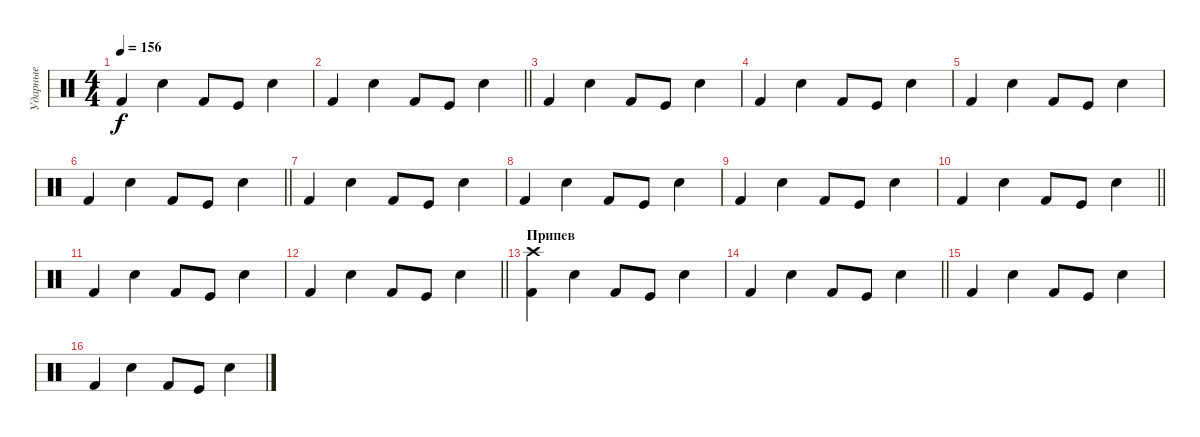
\track ("Ударные" "Ударные") {instrument percussion}
\staff {score}
\articulation defaults
\ts (4 4)
\tempo 156
\clef neutral
\ks c "Kick (hit) 2".4{dy f} "Snare (hit) 2".4 "Kick (hit) 2".8 "Kick (hit)".8 "Snare (hit) 2".4
|
\barLineRight lightlight "Kick (hit) 2".4 "Snare (hit) 2".4 "Kick (hit) 2".8 "Kick (hit)".8 "Snare (hit) 2".4
|
"Kick (hit) 2".4 "Snare (hit) 2".4 "Kick (hit) 2".8 "Kick (hit)".8 "Snare (hit) 2".4 |
"Kick (hit) 2".4 "Snare (hit) 2".4 "Kick (hit) 2".8 "Kick (hit)".8 "Snare (hit) 2".4 |
"Kick (hit) 2".4 "Snare (hit) 2".4 "Kick (hit) 2".8 "Kick (hit)".8 "Snare (hit) 2".4 |
\barLineRight lightlight "Kick (hit) 2".4 "Snare (hit) 2".4 "Kick (hit) 2".8 "Kick (hit)".8 "Snare (hit) 2".4
|
"Kick (hit) 2".4 "Snare (hit) 2".4 "Kick (hit) 2".8 "Kick (hit)".8 "Snare (hit) 2".4 |
"Kick (hit) 2".4 "Snare (hit) 2".4 "Kick (hit) 2".8 "Kick (hit)".8 "Snare (hit) 2".4 |
"Kick (hit) 2".4 "Snare (hit) 2".4 "Kick (hit) 2".8 "Kick (hit)".8 "Snare (hit) 2".4 |
\barLineRight lightlight "Kick (hit) 2".4 "Snare (hit) 2".4 "Kick (hit) 2".8 "Kick (hit)".8 "Snare (hit) 2".4
|
"Kick (hit) 2".4 "Snare (hit) 2".4 "Kick (hit) 2".8 "Kick (hit)".8 "Snare (hit) 2".4 |
\barLineRight lightlight "Kick (hit) 2".4 "Snare (hit) 2".4 "Kick (hit) 2".8 "Kick (hit)".8 "Snare (hit) 2".4
|
\section ("" "Припев")
("Kick (hit) 2" "Crash high (hit)").4 "Snare (hit) 2".4 "Kick (hit) 2".8 "Kick (hit)".8 "Snare (hit) 2".4 |
\barLineRight lightlight "Kick (hit) 2".4 "Snare (hit) 2".4 "Kick (hit) 2".8 "Kick (hit)".8 "Snare (hit) 2".4
|
"Kick (hit) 2".4 "Snare (hit) 2".4 "Kick (hit) 2".8 "Kick (hit)".8 "Snare (hit) 2".4 |
"Kick (hit) 2".4 "Snare (hit) 2".4 "Kick (hit) 2".8 "Kick (hit)".8 "Snare (hit) 2".4
